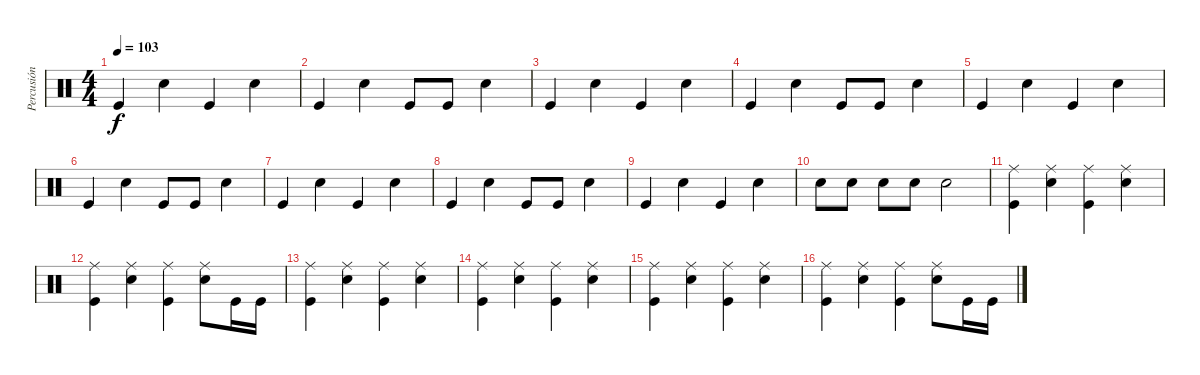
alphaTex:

\track ("Percusión" "Percusión") {instrument percussion}
\staff {score}
\articulation defaults
\ts (4 4)
\tempo 103
\clef neutral
\ks c "Kick (hit)".4{dy f} "Electric Snare (hit)".4 "Kick (hit)".4 "Electric Snare (hit)".4
|
"Kick (hit)".4 "Electric Snare (hit)".4 "Kick (hit)".8 "Kick (hit)".8 "Electric Snare (hit)".4 |
"Kick (hit)".4 "Electric Snare (hit)".4 "Kick (hit)".4 "Electric Snare (hit)".4 |
"Kick (hit)".4 "Electric Snare (hit)".4 "Kick (hit)".8 "Kick (hit)".8 "Electric Snare (hit)".4 |
"Kick (hit)".4 "Electric Snare (hit)".4 "Kick (hit)".4 "Electric Snare (hit)".4 |
"Kick (hit)".4 "Electric Snare (hit)".4 "Kick (hit)".8 "Kick (hit)".8 "Electric Snare (hit)".4 |
"Kick (hit)".4 "Electric Snare (hit)".4 "Kick (hit)".4 "Electric Snare (hit)".4 |
"Kick (hit)".4 "Electric Snare (hit)".4 "Kick (hit)".8 "Kick (hit)".8 "Electric Snare (hit)".4 |
"Kick (hit)".4 "Electric Snare (hit)".4 "Kick (hit)".4 "Electric Snare (hit)".4 |
"Electric Snare (hit)".8{volume 5} "Electric Snare (hit)".8{volume 13} "Electric Snare (hit)".8 "Electric Snare (hit)".8 "Electric Snare (hit)".2 |
("Kick (hit)" "Ride (middle)").4 ("Electric Snare (hit)" "Ride (middle)").4 ("Kick (hit)" "Ride (middle)").4 ("Electric Snare (hit)" "Ride (middle)").4 |
("Kick (hit)" "Ride (middle)").4 ("Electric Snare (hit)" "Ride (middle)").4 ("Kick (hit)" "Ride (middle)").4 ("Electric Snare (hit)" "Ride (middle)").8 "Kick (hit)".16 "Kick (hit)".16 |
("Kick (hit)" "Ride (middle)").4 ("Electric Snare (hit)" "Ride (middle)").4 ("Kick (hit)" "Ride (middle)").4 ("Electric Snare (hit)" "Ride (middle)").4 |
("Kick (hit)" "Ride (middle)").4 ("Electric Snare (hit)" "Ride (middle)").4 ("Kick (hit)" "Ride (middle)").4 ("Electric Snare (hit)" "Ride (middle)").4 |
("Kick (hit)" "Ride (middle)").4 ("Electric Snare (hit)" "Ride (middle)").4 ("Kick (hit)" "Ride (middle)").4 ("Electric Snare (hit)" "Ride (middle)").4 |
("Kick (hit)" "Ride (middle)").4 ("Electric Snare (hit)" "Ride (middle)").4 ("Kick (hit)" "Ride (middle)").4 ("Electric Snare (hit)" "Ride (middle)").8 "Kick (hit)".16 "Kick (hit)".16
